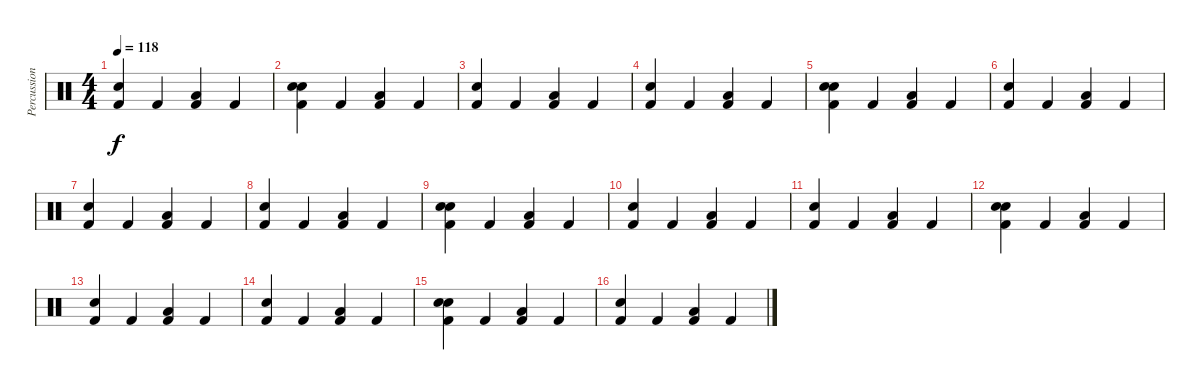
\track ("Percussion" "Percussion") {instrument percussion}
\staff {score}
\articulation defaults
\ts (4 4)
\tempo 118
\clef neutral
\ks c
("Electric Snare (hit)" "Kick (hit) 2").4{dy f} "Kick (hit) 2".4 ("Low Floor Tom (hit)" "Kick (hit) 2").4 "Kick (hit) 2".4 |
("Snare (hit) 2" "Electric Snare (hit)" "Kick (hit) 2").4 "Kick (hit) 2".4 ("Low Floor Tom (hit)" "Kick (hit) 2").4 "Kick (hit) 2".4 |
("Electric Snare (hit)" "Kick (hit) 2").4 "Kick (hit) 2".4 ("Low Floor Tom (hit)" "Kick (hit) 2").4 "Kick (hit) 2".4 |
("Electric Snare (hit)" "Kick (hit) 2").4 "Kick (hit) 2".4 ("Low Floor Tom (hit)" "Kick (hit) 2").4 "Kick (hit) 2".4 |
("Snare (hit) 2" "Electric Snare (hit)" "Kick (hit) 2").4 "Kick (hit) 2".4 ("Low Floor Tom (hit)" "Kick (hit) 2").4 "Kick (hit) 2".4 |
("Electric Snare (hit)" "Kick (hit) 2").4 "Kick (hit) 2".4 ("Low Floor Tom (hit)" "Kick (hit) 2").4 "Kick (hit) 2".4 |
("Electric Snare (hit)" "Kick (hit) 2").4 "Kick (hit) 2".4 ("Low Floor Tom (hit)" "Kick (hit) 2").4 "Kick (hit) 2".4 |
("Electric Snare (hit)" "Kick (hit) 2").4 "Kick (hit) 2".4 ("Low Floor Tom (hit)" "Kick (hit) 2").4 "Kick (hit) 2".4 |
("Snare (hit) 2" "Electric Snare (hit)" "Kick (hit) 2").4 "Kick (hit) 2".4 ("Low Floor Tom (hit)" "Kick (hit) 2").4 "Kick (hit) 2".4 |
("Electric Snare (hit)" "Kick (hit) 2").4 "Kick (hit) 2".4 ("Low Floor Tom (hit)" "Kick (hit) 2").4 "Kick (hit) 2".4 |
("Electric Snare (hit)" "Kick (hit) 2").4 "Kick (hit) 2".4 ("Low Floor Tom (hit)" "Kick (hit) 2").4 "Kick (hit) 2".4 |
("Snare (hit) 2" "Electric Snare (hit)" "Kick (hit) 2").4 "Kick (hit) 2".4 ("Low Floor Tom (hit)" "Kick (hit) 2").4 "Kick (hit) 2".4 |
("Electric Snare (hit)" "Kick (hit) 2").4 "Kick (hit) 2".4 ("Low Floor Tom (hit)" "Kick (hit) 2").4 "Kick (hit) 2".4 |
("Electric Snare (hit)" "Kick (hit) 2").4 "Kick (hit) 2".4 ("Low Floor Tom (hit)" "Kick (hit) 2").4 "Kick (hit) 2".4 |
("Snare (hit) 2" "Electric Snare (hit)" "Kick (hit) 2").4 "Kick (hit) 2".4 ("Low Floor Tom (hit)" "Kick (hit) 2").4 "Kick (hit) 2".4 |
("Electric Snare (hit)" "Kick (hit) 2").4 "Kick (hit) 2".4 ("Low Floor Tom (hit)" "Kick (hit) 2").4 "Kick (hit) 2".4
